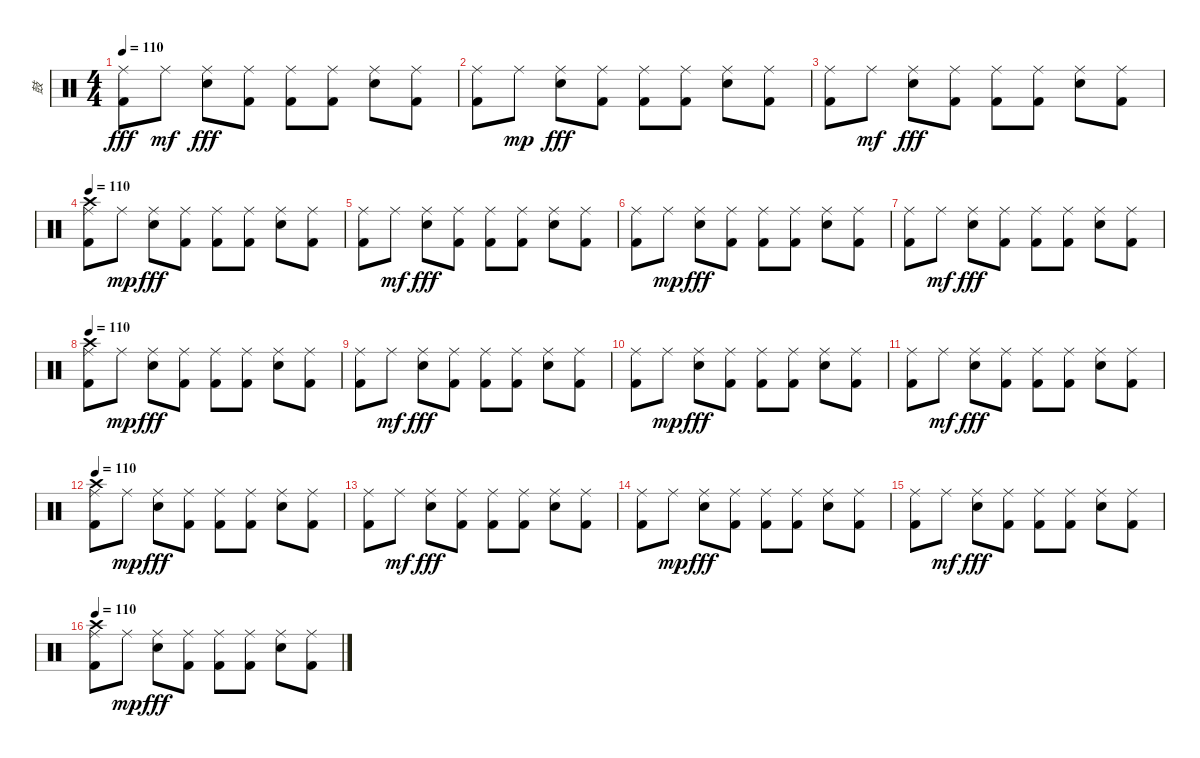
\track ("鼓" "鼓") {instrument percussion}
\staff {score}
\articulation defaults
\ts (4 4)
\tempo 110
\clef neutral
\ks c
("Ride (middle)" "Kick (hit) 2").8{dy fff} "Ride (middle)".8{dy mf} ("Ride (middle)" "Electric Snare (hit)").8{dy fff} ("Ride (middle)" "Kick (hit) 2").8 ("Ride (middle)" "Kick (hit) 2").8 ("Ride (middle)" "Kick (hit) 2").8 ("Ride (middle)" "Electric Snare (hit)").8 ("Ride (middle)" "Kick (hit) 2").8 |
("Ride (middle)" "Kick (hit) 2").8 "Ride (middle)".8{dy mp} ("Ride (middle)" "Electric Snare (hit)").8{dy fff} ("Ride (middle)" "Kick (hit) 2").8 ("Ride (middle)" "Kick (hit) 2").8 ("Ride (middle)" "Kick (hit) 2").8 ("Ride (middle)" "Electric Snare (hit)").8 ("Ride (middle)" "Kick (hit) 2").8 |
("Ride (middle)" "Kick (hit) 2").8 "Ride (middle)".8{dy mf} ("Ride (middle)" "Electric Snare (hit)").8{dy fff} ("Ride (middle)" "Kick (hit) 2").8 ("Ride (middle)" "Kick (hit) 2").8 ("Ride (middle)" "Kick (hit) 2").8 ("Ride (middle)" "Electric Snare (hit)").8 ("Ride (middle)" "Kick (hit) 2").8 |
\tempo 110
("Ride (middle)" "Crash high (hit)" "Kick (hit) 2").8 "Ride (middle)".8{dy mp} ("Ride (middle)" "Electric Snare (hit)").8{dy fff} ("Ride (middle)" "Kick (hit) 2").8 ("Ride (middle)" "Kick (hit) 2").8 ("Ride (middle)" "Kick (hit) 2").8 ("Ride (middle)" "Electric Snare (hit)").8 ("Ride (middle)" "Kick (hit) 2").8 |
("Ride (middle)" "Kick (hit) 2").8 "Ride (middle)".8{dy mf} ("Ride (middle)" "Electric Snare (hit)").8{dy fff} ("Ride (middle)" "Kick (hit) 2").8 ("Ride (middle)" "Kick (hit) 2").8 ("Ride (middle)" "Kick (hit) 2").8 ("Ride (middle)" "Electric Snare (hit)").8 ("Ride (middle)" "Kick (hit) 2").8 |
("Ride (middle)" "Kick (hit) 2").8 "Ride (middle)".8{dy mp} ("Ride (middle)" "Electric Snare (hit)").8{dy fff} ("Ride (middle)" "Kick (hit) 2").8 ("Ride (middle)" "Kick (hit) 2").8 ("Ride (middle)" "Kick (hit) 2").8 ("Ride (middle)" "Electric Snare (hit)").8 ("Ride (middle)" "Kick (hit) 2").8 |
("Ride (middle)" "Kick (hit) 2").8 "Ride (middle)".8{dy mf} ("Ride (middle)" "Electric Snare (hit)").8{dy fff} ("Ride (middle)" "Kick (hit) 2").8 ("Ride (middle)" "Kick (hit) 2").8 ("Ride (middle)" "Kick (hit) 2").8 ("Ride (middle)" "Electric Snare (hit)").8 ("Ride (middle)" "Kick (hit) 2").8 |
\tempo 110
("Ride (middle)" "Crash high (hit)" "Kick (hit) 2").8 "Ride (middle)".8{dy mp} ("Ride (middle)" "Electric Snare (hit)").8{dy fff} ("Ride (middle)" "Kick (hit) 2").8 ("Ride (middle)" "Kick (hit) 2").8 ("Ride (middle)" "Kick (hit) 2").8 ("Ride (middle)" "Electric Snare (hit)").8 ("Ride (middle)" "Kick (hit) 2").8 |
("Ride (middle)" "Kick (hit) 2").8 "Ride (middle)".8{dy mf} ("Ride (middle)" "Electric Snare (hit)").8{dy fff} ("Ride (middle)" "Kick (hit) 2").8 ("Ride (middle)" "Kick (hit) 2").8 ("Ride (middle)" "Kick (hit) 2").8 ("Ride (middle)" "Electric Snare (hit)").8 ("Ride (middle)" "Kick (hit) 2").8 |
("Ride (middle)" "Kick (hit) 2").8 "Ride (middle)".8{dy mp} ("Ride (middle)" "Electric Snare (hit)").8{dy fff} ("Ride (middle)" "Kick (hit) 2").8 ("Ride (middle)" "Kick (hit) 2").8 ("Ride (middle)" "Kick (hit) 2").8 ("Ride (middle)" "Electric Snare (hit)").8 ("Ride (middle)" "Kick (hit) 2").8 |
("Ride (middle)" "Kick (hit) 2").8 "Ride (middle)".8{dy mf} ("Ride (middle)" "Electric Snare (hit)").8{dy fff} ("Ride (middle)" "Kick (hit) 2").8 ("Ride (middle)" "Kick (hit) 2").8 ("Ride (middle)" "Kick (hit) 2").8 ("Ride (middle)" "Electric Snare (hit)").8 ("Ride (middle)" "Kick (hit) 2").8 |
\tempo 110
("Ride (middle)" "Crash high (hit)" "Kick (hit) 2").8 "Ride (middle)".8{dy mp} ("Ride (middle)" "Electric Snare (hit)").8{dy fff} ("Ride (middle)" "Kick (hit) 2").8 ("Ride (middle)" "Kick (hit) 2").8 ("Ride (middle)" "Kick (hit) 2").8 ("Ride (middle)" "Electric Snare (hit)").8 ("Ride (middle)" "Kick (hit) 2").8 |
("Ride (middle)" "Kick (hit) 2").8 "Ride (middle)".8{dy mf} ("Ride (middle)" "Electric Snare (hit)").8{dy fff} ("Ride (middle)" "Kick (hit) 2").8 ("Ride (middle)" "Kick (hit) 2").8 ("Ride (middle)" "Kick (hit) 2").8 ("Ride (middle)" "Electric Snare (hit)").8 ("Ride (middle)" "Kick (hit) 2").8 |
("Ride (middle)" "Kick (hit) 2").8 "Ride (middle)".8{dy mp} ("Ride (middle)" "Electric Snare (hit)").8{dy fff} ("Ride (middle)" "Kick (hit) 2").8 ("Ride (middle)" "Kick (hit) 2").8 ("Ride (middle)" "Kick (hit) 2").8 ("Ride (middle)" "Electric Snare (hit)").8 ("Ride (middle)" "Kick (hit) 2").8 |
("Ride (middle)" "Kick (hit) 2").8 "Ride (middle)".8{dy mf} ("Ride (middle)" "Electric Snare (hit)").8{dy fff} ("Ride (middle)" "Kick (hit) 2").8 ("Ride (middle)" "Kick (hit) 2").8 ("Ride (middle)" "Kick (hit) 2").8 ("Ride (middle)" "Electric Snare (hit)").8 ("Ride (middle)" "Kick (hit) 2").8 |
\tempo 110
("Ride (middle)" "Crash high (hit)" "Kick (hit) 2").8 "Ride (middle)".8{dy mp} ("Ride (middle)" "Electric Snare (hit)").8{dy fff} ("Ride (middle)" "Kick (hit) 2").8 ("Ride (middle)" "Kick (hit) 2").8 ("Ride (middle)" "Kick (hit) 2").8 ("Ride (middle)" "Electric Snare (hit)").8 ("Ride (middle)" "Kick (hit) 2").8
